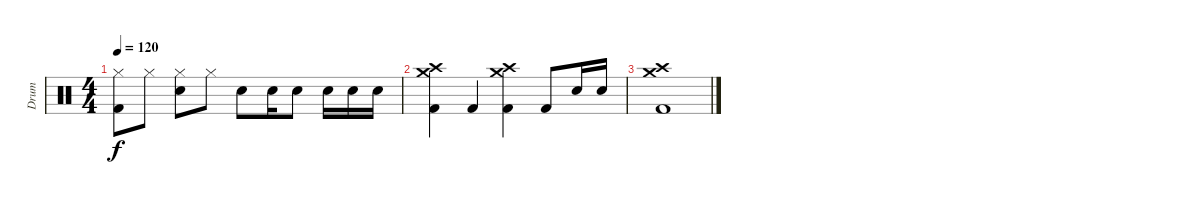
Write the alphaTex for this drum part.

\track ("Drum" "Drum") {instrument percussion}
\staff {score}
\articulation defaults
\ts (4 4)
\tempo 120
\clef neutral
\ks c
("Hi-Hat (closed)" "Kick (hit) 2").8{dy f} "Hi-Hat (closed)".8 ("Hi-Hat (closed)" "Electric Snare (hit)").8 "Hi-Hat (closed)".8 "Electric Snare (hit)".8 "Electric Snare (hit)".16 "Electric Snare (hit)".8 "Electric Snare (hit)".16 "Electric Snare (hit)".16 "Electric Snare (hit)".16 |
("Crash medium (hit)" "Crash high (hit)" "Kick (hit) 2").4 "Kick (hit) 2".4 ("Crash medium (hit)" "Crash high (hit)" "Kick (hit) 2").4 "Kick (hit) 2".8 "Electric Snare (hit)".16 "Electric Snare (hit)".16 |
("Crash medium (hit)" "Crash high (hit)" "Kick (hit) 2").1
